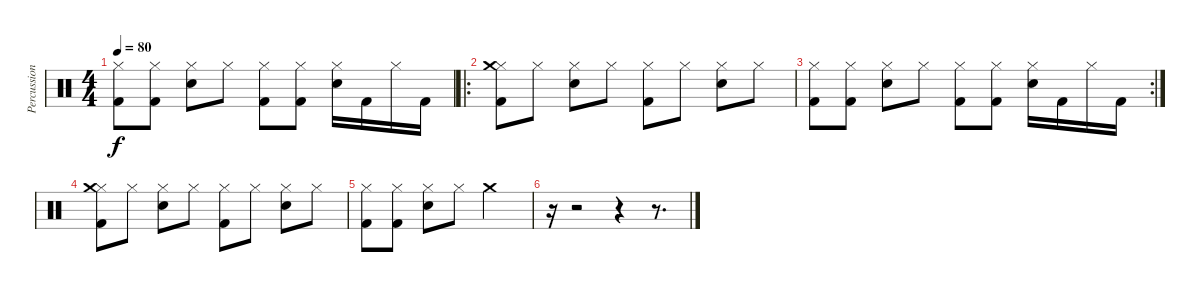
\track ("Percussion" "Percussion") {instrument percussion}
\staff {score}
\articulation defaults
\ts (4 4)
\tempo 80
\clef neutral
\ks c
("Hi-Hat (closed)" "Kick (hit) 2").8{dy f} ("Hi-Hat (closed)" "Kick (hit) 2").8 ("Hi-Hat (closed)" "Snare (hit) 2").8 "Hi-Hat (closed)".8 ("Hi-Hat (closed)" "Kick (hit) 2").8 ("Hi-Hat (closed)" "Kick (hit) 2").8 ("Hi-Hat (closed)" "Snare (hit) 2").16 "Kick (hit) 2".16 "Hi-Hat (closed)".16 "Kick (hit) 2".16 |
\ro
("Hi-Hat (closed)" "Kick (hit) 2" "Crash medium (hit)").8 "Hi-Hat (closed)".8 ("Hi-Hat (closed)" "Snare (hit) 2").8 "Hi-Hat (closed)".8 ("Hi-Hat (closed)" "Kick (hit) 2").8 "Hi-Hat (closed)".8 ("Hi-Hat (closed)" "Snare (hit) 2").8 "Hi-Hat (closed)".8 |
\rc 2
("Hi-Hat (closed)" "Kick (hit) 2").8 ("Hi-Hat (closed)" "Kick (hit) 2").8 ("Hi-Hat (closed)" "Snare (hit) 2").8 "Hi-Hat (closed)".8 ("Hi-Hat (closed)" "Kick (hit) 2").8 ("Hi-Hat (closed)" "Kick (hit) 2").8 ("Hi-Hat (closed)" "Snare (hit) 2").16 "Kick (hit) 2".16 "Hi-Hat (closed)".16 "Kick (hit) 2".16 |
("Hi-Hat (closed)" "Kick (hit) 2" "Crash medium (hit)").8 "Hi-Hat (closed)".8 ("Hi-Hat (closed)" "Snare (hit) 2").8 "Hi-Hat (closed)".8 ("Hi-Hat (closed)" "Kick (hit) 2").8 "Hi-Hat (closed)".8 ("Hi-Hat (closed)" "Snare (hit) 2").8 "Hi-Hat (closed)".8 |
("Hi-Hat (closed)" "Kick (hit) 2").8 ("Hi-Hat (closed)" "Kick (hit) 2").8 ("Hi-Hat (closed)" "Snare (hit) 2").8 "Hi-Hat (closed)".8 "Crash medium (hit)".2 |
r.16 r.2 r.4 r.8{d}
